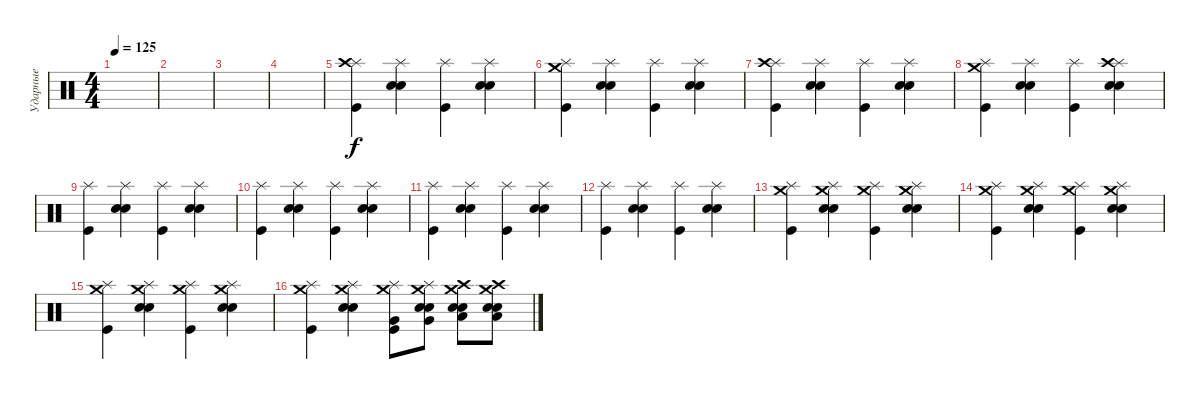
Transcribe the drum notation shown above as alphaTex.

\track ("Ударные" "Ударные") {instrument percussion}
\staff {score}
\articulation defaults
\ts (4 4)
\tempo 125
\clef neutral
\ks c
|
|
|
|
("Splash (hit)" "Crash high (hit)" "Kick (hit)").4 ("Splash (hit)" "Snare (hit) 2" "Snare (hit) 2").4 ("Splash (hit)" "Kick (hit)").4 ("Splash (hit)" "Snare (hit) 2" "Snare (hit) 2").4 |
("Splash (hit)" "Crash medium (hit)" "Kick (hit)").4 ("Splash (hit)" "Snare (hit) 2" "Snare (hit) 2").4 ("Splash (hit)" "Kick (hit)").4 ("Splash (hit)" "Snare (hit) 2" "Snare (hit) 2").4 |
("Splash (hit)" "Crash high (hit)" "Kick (hit)").4 ("Splash (hit)" "Snare (hit) 2" "Snare (hit) 2").4 ("Splash (hit)" "Kick (hit)").4 ("Splash (hit)" "Snare (hit) 2" "Snare (hit) 2").4 |
("Splash (hit)" "Crash medium (hit)" "Kick (hit)").4 ("Splash (hit)" "Snare (hit) 2" "Snare (hit) 2").4 ("Splash (hit)" "Kick (hit)").4 ("Splash (hit)" "Crash high (hit)" "Snare (hit) 2" "Snare (hit) 2").4 |
("Splash (hit)" "Kick (hit)").4 ("Splash (hit)" "Snare (hit) 2" "Snare (hit) 2").4 ("Splash (hit)" "Kick (hit)").4 ("Splash (hit)" "Snare (hit) 2" "Snare (hit) 2").4 |
("Splash (hit)" "Kick (hit)").4 ("Splash (hit)" "Snare (hit) 2" "Snare (hit) 2").4 ("Splash (hit)" "Kick (hit)").4 ("Splash (hit)" "Snare (hit) 2" "Snare (hit) 2").4 |
("Splash (hit)" "Kick (hit)").4 ("Splash (hit)" "Snare (hit) 2" "Snare (hit) 2").4 ("Splash (hit)" "Kick (hit)").4 ("Splash (hit)" "Snare (hit) 2" "Snare (hit) 2").4 |
("Splash (hit)" "Kick (hit)").4 ("Splash (hit)" "Snare (hit) 2" "Snare (hit) 2").4 ("Splash (hit)" "Kick (hit)").4 ("Splash (hit)" "Snare (hit) 2" "Snare (hit) 2").4 |
("Splash (hit)" "Crash medium (hit)" "Kick (hit)").4 ("Splash (hit)" "Crash medium (hit)" "Snare (hit) 2" "Snare (hit) 2").4 ("Splash (hit)" "Crash medium (hit)" "Kick (hit)").4 ("Splash (hit)" "Crash medium (hit)" "Snare (hit) 2" "Snare (hit) 2").4 |
("Splash (hit)" "Crash medium (hit)" "Kick (hit)").4 ("Splash (hit)" "Crash medium (hit)" "Snare (hit) 2" "Snare (hit) 2").4 ("Splash (hit)" "Crash medium (hit)" "Kick (hit)").4 ("Splash (hit)" "Crash medium (hit)" "Snare (hit) 2" "Snare (hit) 2").4 |
("Splash (hit)" "Crash medium (hit)" "Kick (hit)").4 ("Splash (hit)" "Crash medium (hit)" "Snare (hit) 2" "Snare (hit) 2").4 ("Splash (hit)" "Crash medium (hit)" "Kick (hit)").4 ("Splash (hit)" "Crash medium (hit)" "Snare (hit) 2" "Snare (hit) 2").4 |
("Splash (hit)" "Crash medium (hit)" "Kick (hit)").4 ("Splash (hit)" "Crash medium (hit)" "Snare (hit) 2" "Snare (hit) 2").4 ("Splash (hit)" "Crash medium (hit)" "Very Low Tom (hit)" "Kick (hit)").8 ("Splash (hit)" "Crash medium (hit)" "Snare (hit) 2" "Snare (hit) 2" "Very Low Tom (hit)").8 ("Crash high (hit)" "Crash medium (hit)" "Electric Snare (hit)" "Electric Snare (hit)" "Low Floor Tom (hit)").8 ("Crash high (hit)" "Crash medium (hit)" "Electric Snare (hit)" "Electric Snare (hit)" "Low Floor Tom (hit)").8
